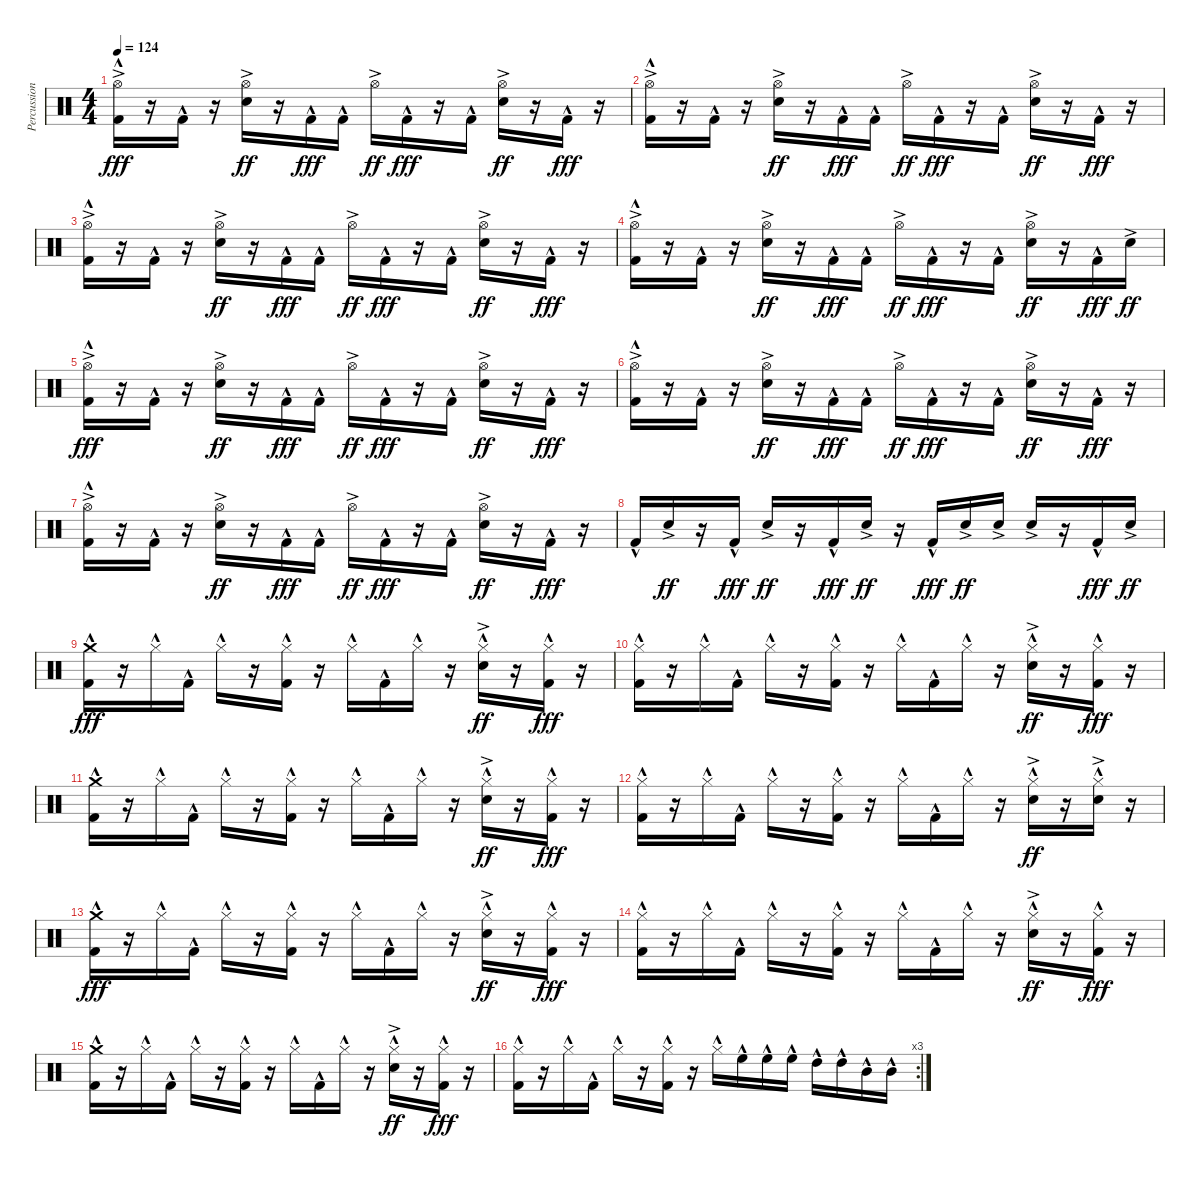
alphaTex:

\track ("Percussion" "Percussion") {instrument percussion}
\staff {score}
\articulation defaults
\ts (4 4)
\tempo 124
\clef neutral
\ks c
("Hi-Hat (open)"{ac} "Kick (hit) 2"{hac}).16{dy fff} r.16 "Kick (hit) 2"{hac}.16 r.16 ("Hi-Hat (open)"{ac} "Snare (hit) 2"{ac}).16{dy ff} r.16 "Kick (hit) 2"{hac}.16{dy fff} "Kick (hit) 2"{hac}.16 "Hi-Hat (open)"{ac}.16{dy ff} "Kick (hit) 2"{hac}.16{dy fff} r.16 "Kick (hit) 2"{hac}.16 ("Hi-Hat (open)"{ac} "Snare (hit) 2"{ac}).16{dy ff} r.16 "Kick (hit) 2"{hac}.16{dy fff} r.16 |
("Hi-Hat (open)"{ac} "Kick (hit) 2"{hac}).16 r.16 "Kick (hit) 2"{hac}.16 r.16 ("Hi-Hat (open)"{ac} "Snare (hit) 2"{ac}).16{dy ff} r.16 "Kick (hit) 2"{hac}.16{dy fff} "Kick (hit) 2"{hac}.16 "Hi-Hat (open)"{ac}.16{dy ff} "Kick (hit) 2"{hac}.16{dy fff} r.16 "Kick (hit) 2"{hac}.16 ("Hi-Hat (open)"{ac} "Snare (hit) 2"{ac}).16{dy ff} r.16 "Kick (hit) 2"{hac}.16{dy fff} r.16 |
("Hi-Hat (open)"{ac} "Kick (hit) 2"{hac}).16 r.16 "Kick (hit) 2"{hac}.16 r.16 ("Hi-Hat (open)"{ac} "Snare (hit) 2"{ac}).16{dy ff} r.16 "Kick (hit) 2"{hac}.16{dy fff} "Kick (hit) 2"{hac}.16 "Hi-Hat (open)"{ac}.16{dy ff} "Kick (hit) 2"{hac}.16{dy fff} r.16 "Kick (hit) 2"{hac}.16 ("Hi-Hat (open)"{ac} "Snare (hit) 2"{ac}).16{dy ff} r.16 "Kick (hit) 2"{hac}.16{dy fff} r.16 |
("Hi-Hat (open)"{ac} "Kick (hit) 2"{hac}).16 r.16 "Kick (hit) 2"{hac}.16 r.16 ("Hi-Hat (open)"{ac} "Snare (hit) 2"{ac}).16{dy ff} r.16 "Kick (hit) 2"{hac}.16{dy fff} "Kick (hit) 2"{hac}.16 "Hi-Hat (open)"{ac}.16{dy ff} "Kick (hit) 2"{hac}.16{dy fff} r.16 "Kick (hit) 2"{hac}.16 ("Hi-Hat (open)"{ac} "Snare (hit) 2"{ac}).16{dy ff} r.16 "Kick (hit) 2"{hac}.16{dy fff} "Snare (hit) 2"{ac}.16{dy ff} |
("Hi-Hat (open)"{ac} "Kick (hit) 2"{hac}).16{dy fff} r.16 "Kick (hit) 2"{hac}.16 r.16 ("Hi-Hat (open)"{ac} "Snare (hit) 2"{ac}).16{dy ff} r.16 "Kick (hit) 2"{hac}.16{dy fff} "Kick (hit) 2"{hac}.16 "Hi-Hat (open)"{ac}.16{dy ff} "Kick (hit) 2"{hac}.16{dy fff} r.16 "Kick (hit) 2"{hac}.16 ("Hi-Hat (open)"{ac} "Snare (hit) 2"{ac}).16{dy ff} r.16 "Kick (hit) 2"{hac}.16{dy fff} r.16 |
("Hi-Hat (open)"{ac} "Kick (hit) 2"{hac}).16 r.16 "Kick (hit) 2"{hac}.16 r.16 ("Hi-Hat (open)"{ac} "Snare (hit) 2"{ac}).16{dy ff} r.16 "Kick (hit) 2"{hac}.16{dy fff} "Kick (hit) 2"{hac}.16 "Hi-Hat (open)"{ac}.16{dy ff} "Kick (hit) 2"{hac}.16{dy fff} r.16 "Kick (hit) 2"{hac}.16 ("Hi-Hat (open)"{ac} "Snare (hit) 2"{ac}).16{dy ff} r.16 "Kick (hit) 2"{hac}.16{dy fff} r.16 |
("Hi-Hat (open)"{ac} "Kick (hit) 2"{hac}).16 r.16 "Kick (hit) 2"{hac}.16 r.16 ("Hi-Hat (open)"{ac} "Snare (hit) 2"{ac}).16{dy ff} r.16 "Kick (hit) 2"{hac}.16{dy fff} "Kick (hit) 2"{hac}.16 "Hi-Hat (open)"{ac}.16{dy ff} "Kick (hit) 2"{hac}.16{dy fff} r.16 "Kick (hit) 2"{hac}.16 ("Hi-Hat (open)"{ac} "Snare (hit) 2"{ac}).16{dy ff} r.16 "Kick (hit) 2"{hac}.16{dy fff} r.16 |
"Kick (hit) 2"{hac}.16 "Snare (hit) 2"{ac}.16{dy ff} r.16 "Kick (hit) 2"{hac}.16{dy fff} "Snare (hit) 2"{ac}.16{dy ff} r.16 "Kick (hit) 2"{hac}.16{dy fff} "Snare (hit) 2"{ac}.16{dy ff} r.16 "Kick (hit) 2"{hac}.16{dy fff} "Snare (hit) 2"{ac}.16{dy ff} "Snare (hit) 2"{ac}.16 "Snare (hit) 2"{ac}.16 r.16 "Kick (hit) 2"{hac}.16{dy fff} "Snare (hit) 2"{ac}.16{dy ff} |
("Crash medium (hit)"{hac} "Kick (hit) 2"{hac}).16{dy fff} r.16 "Hi-Hat (closed)"{hac}.16 "Kick (hit) 2"{hac}.16 "Hi-Hat (closed)"{hac}.16 r.16 ("Hi-Hat (closed)"{hac} "Kick (hit) 2"{hac}).16 r.16 "Hi-Hat (closed)"{hac}.16 "Kick (hit) 2"{hac}.16 "Hi-Hat (closed)"{hac}.16 r.16 ("Hi-Hat (closed)"{hac} "Snare (hit) 2"{ac}).16{dy ff} r.16 ("Hi-Hat (closed)"{hac} "Kick (hit) 2"{hac}).16{dy fff} r.16 |
("Hi-Hat (closed)"{hac} "Kick (hit) 2"{hac}).16 r.16 "Hi-Hat (closed)"{hac}.16 "Kick (hit) 2"{hac}.16 "Hi-Hat (closed)"{hac}.16 r.16 ("Hi-Hat (closed)"{hac} "Kick (hit) 2"{hac}).16 r.16 "Hi-Hat (closed)"{hac}.16 "Kick (hit) 2"{hac}.16 "Hi-Hat (closed)"{hac}.16 r.16 ("Hi-Hat (closed)"{hac} "Snare (hit) 2"{ac}).16{dy ff} r.16 ("Hi-Hat (closed)"{hac} "Kick (hit) 2"{hac}).16{dy fff} r.16 |
("Crash medium (hit)"{hac} "Kick (hit) 2"{hac}).16 r.16 "Hi-Hat (closed)"{hac}.16 "Kick (hit) 2"{hac}.16 "Hi-Hat (closed)"{hac}.16 r.16 ("Hi-Hat (closed)"{hac} "Kick (hit) 2"{hac}).16 r.16 "Hi-Hat (closed)"{hac}.16 "Kick (hit) 2"{hac}.16 "Hi-Hat (closed)"{hac}.16 r.16 ("Hi-Hat (closed)"{hac} "Snare (hit) 2"{ac}).16{dy ff} r.16 ("Hi-Hat (closed)"{hac} "Kick (hit) 2"{hac}).16{dy fff} r.16 |
("Hi-Hat (closed)"{hac} "Kick (hit) 2"{hac}).16 r.16 "Hi-Hat (closed)"{hac}.16 "Kick (hit) 2"{hac}.16 "Hi-Hat (closed)"{hac}.16 r.16 ("Hi-Hat (closed)"{hac} "Kick (hit) 2"{hac}).16 r.16 "Hi-Hat (closed)"{hac}.16 "Kick (hit) 2"{hac}.16 "Hi-Hat (closed)"{hac}.16 r.16 ("Hi-Hat (closed)"{hac} "Snare (hit) 2"{ac}).16{dy ff} r.16 ("Hi-Hat (closed)"{hac} "Snare (hit) 2"{ac}).16 r.16 |
("Crash medium (hit)"{hac} "Kick (hit) 2"{hac}).16{dy fff} r.16 "Hi-Hat (closed)"{hac}.16 "Kick (hit) 2"{hac}.16 "Hi-Hat (closed)"{hac}.16 r.16 ("Hi-Hat (closed)"{hac} "Kick (hit) 2"{hac}).16 r.16 "Hi-Hat (closed)"{hac}.16 "Kick (hit) 2"{hac}.16 "Hi-Hat (closed)"{hac}.16 r.16 ("Hi-Hat (closed)"{hac} "Snare (hit) 2"{ac}).16{dy ff} r.16 ("Hi-Hat (closed)"{hac} "Kick (hit) 2"{hac}).16{dy fff} r.16 |
("Hi-Hat (closed)"{hac} "Kick (hit) 2"{hac}).16 r.16 "Hi-Hat (closed)"{hac}.16 "Kick (hit) 2"{hac}.16 "Hi-Hat (closed)"{hac}.16 r.16 ("Hi-Hat (closed)"{hac} "Kick (hit) 2"{hac}).16 r.16 "Hi-Hat (closed)"{hac}.16 "Kick (hit) 2"{hac}.16 "Hi-Hat (closed)"{hac}.16 r.16 ("Hi-Hat (closed)"{hac} "Snare (hit) 2"{ac}).16{dy ff} r.16 ("Hi-Hat (closed)"{hac} "Kick (hit) 2"{hac}).16{dy fff} r.16 |
("Crash medium (hit)"{hac} "Kick (hit) 2"{hac}).16 r.16 "Hi-Hat (closed)"{hac}.16 "Kick (hit) 2"{hac}.16 "Hi-Hat (closed)"{hac}.16 r.16 ("Hi-Hat (closed)"{hac} "Kick (hit) 2"{hac}).16 r.16 "Hi-Hat (closed)"{hac}.16 "Kick (hit) 2"{hac}.16 "Hi-Hat (closed)"{hac}.16 r.16 ("Hi-Hat (closed)"{hac} "Snare (hit) 2"{ac}).16{dy ff} r.16 ("Hi-Hat (closed)"{hac} "Kick (hit) 2"{hac}).16{dy fff} r.16 |
\rc 3
("Hi-Hat (closed)"{hac} "Kick (hit) 2"{hac}).16 r.16 "Hi-Hat (closed)"{hac}.16 "Kick (hit) 2"{hac}.16 "Hi-Hat (closed)"{hac}.16 r.16 ("Hi-Hat (closed)"{hac} "Kick (hit) 2"{hac}).16 r.16 "Hi-Hat (closed)"{hac}.16 "High Floor Tom (hit)"{hac}.16 "High Floor Tom (hit)"{hac}.16 "High Floor Tom (hit)"{hac}.16 "High Tom (hit)"{hac}.16 "High Tom (hit)"{hac}.16 "Mid Tom (hit)"{hac}.16 "Mid Tom (hit)"{hac}.16
